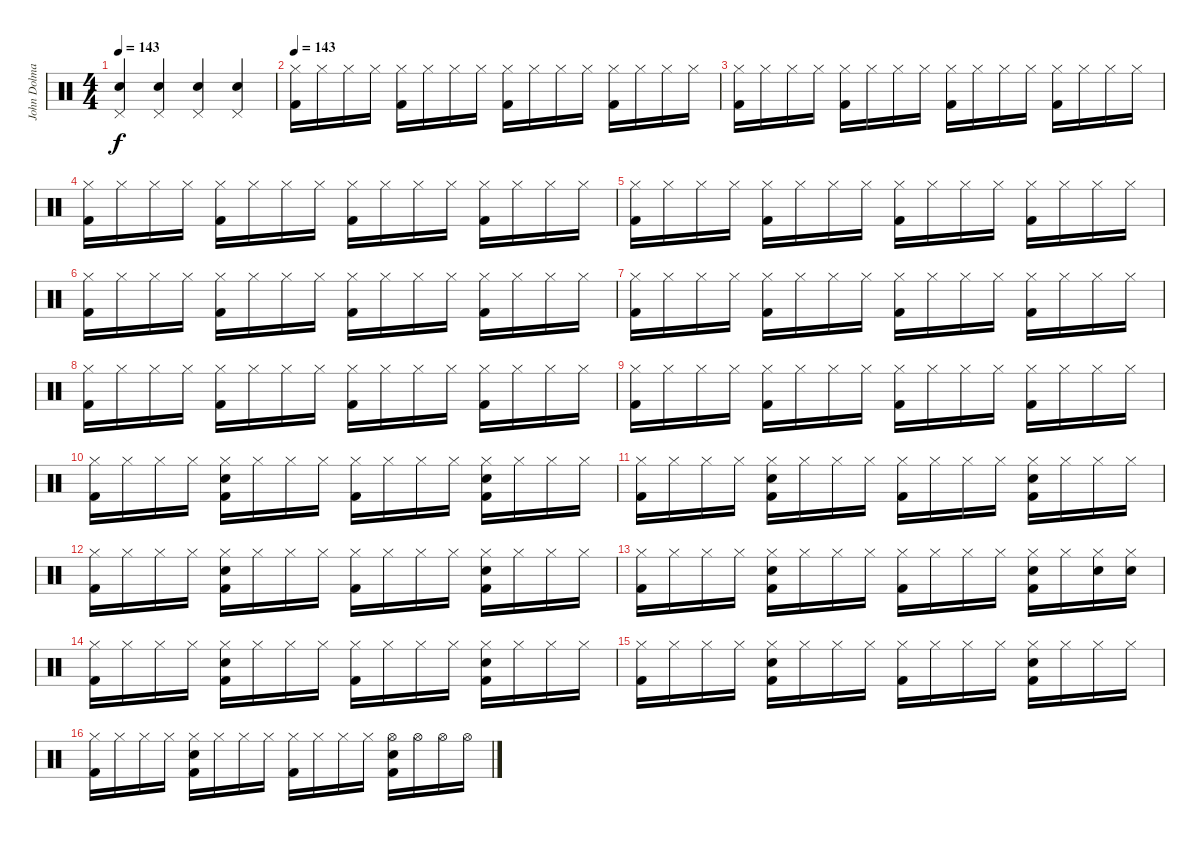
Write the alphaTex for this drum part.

\track ("John Dolmayan (Drums)" "John Dolma") {instrument percussion}
\staff {score}
\articulation defaults
\ts (4 4)
\tempo 143
\clef neutral
\ks c
("Pedal Hi-Hat (hit)" "Electric Snare (hit)").4{dy f} ("Pedal Hi-Hat (hit)" "Electric Snare (hit)").4 ("Pedal Hi-Hat (hit)" "Electric Snare (hit)").4 ("Pedal Hi-Hat (hit)" "Electric Snare (hit)").4 |
\tempo 143
("Hi-Hat (closed)" "Kick (hit) 2").16 "Hi-Hat (closed)".16 "Hi-Hat (closed)".16 "Hi-Hat (closed)".16 ("Hi-Hat (closed)" "Kick (hit) 2").16 "Hi-Hat (closed)".16 "Hi-Hat (closed)".16 "Hi-Hat (closed)".16 ("Hi-Hat (closed)" "Kick (hit) 2").16 "Hi-Hat (closed)".16 "Hi-Hat (closed)".16 "Hi-Hat (closed)".16 ("Hi-Hat (closed)" "Kick (hit) 2").16 "Hi-Hat (closed)".16 "Hi-Hat (closed)".16 "Hi-Hat (closed)".16 |
("Hi-Hat (closed)" "Kick (hit) 2").16 "Hi-Hat (closed)".16 "Hi-Hat (closed)".16 "Hi-Hat (closed)".16 ("Hi-Hat (closed)" "Kick (hit) 2").16 "Hi-Hat (closed)".16 "Hi-Hat (closed)".16 "Hi-Hat (closed)".16 ("Hi-Hat (closed)" "Kick (hit) 2").16 "Hi-Hat (closed)".16 "Hi-Hat (closed)".16 "Hi-Hat (closed)".16 ("Hi-Hat (closed)" "Kick (hit) 2").16 "Hi-Hat (closed)".16 "Hi-Hat (closed)".16 "Hi-Hat (closed)".16 |
("Hi-Hat (closed)" "Kick (hit) 2").16 "Hi-Hat (closed)".16 "Hi-Hat (closed)".16 "Hi-Hat (closed)".16 ("Hi-Hat (closed)" "Kick (hit) 2").16 "Hi-Hat (closed)".16 "Hi-Hat (closed)".16 "Hi-Hat (closed)".16 ("Hi-Hat (closed)" "Kick (hit) 2").16 "Hi-Hat (closed)".16 "Hi-Hat (closed)".16 "Hi-Hat (closed)".16 ("Hi-Hat (closed)" "Kick (hit) 2").16 "Hi-Hat (closed)".16 "Hi-Hat (closed)".16 "Hi-Hat (closed)".16 |
("Hi-Hat (closed)" "Kick (hit) 2").16 "Hi-Hat (closed)".16 "Hi-Hat (closed)".16 "Hi-Hat (closed)".16 ("Hi-Hat (closed)" "Kick (hit) 2").16 "Hi-Hat (closed)".16 "Hi-Hat (closed)".16 "Hi-Hat (closed)".16 ("Hi-Hat (closed)" "Kick (hit) 2").16 "Hi-Hat (closed)".16 "Hi-Hat (closed)".16 "Hi-Hat (closed)".16 ("Hi-Hat (closed)" "Kick (hit) 2").16 "Hi-Hat (closed)".16 "Hi-Hat (closed)".16 "Hi-Hat (closed)".16 |
("Hi-Hat (closed)" "Kick (hit) 2").16 "Hi-Hat (closed)".16 "Hi-Hat (closed)".16 "Hi-Hat (closed)".16 ("Hi-Hat (closed)" "Kick (hit) 2").16 "Hi-Hat (closed)".16 "Hi-Hat (closed)".16 "Hi-Hat (closed)".16 ("Hi-Hat (closed)" "Kick (hit) 2").16 "Hi-Hat (closed)".16 "Hi-Hat (closed)".16 "Hi-Hat (closed)".16 ("Hi-Hat (closed)" "Kick (hit) 2").16 "Hi-Hat (closed)".16 "Hi-Hat (closed)".16 "Hi-Hat (closed)".16 |
("Hi-Hat (closed)" "Kick (hit) 2").16 "Hi-Hat (closed)".16 "Hi-Hat (closed)".16 "Hi-Hat (closed)".16 ("Hi-Hat (closed)" "Kick (hit) 2").16 "Hi-Hat (closed)".16 "Hi-Hat (closed)".16 "Hi-Hat (closed)".16 ("Hi-Hat (closed)" "Kick (hit) 2").16 "Hi-Hat (closed)".16 "Hi-Hat (closed)".16 "Hi-Hat (closed)".16 ("Hi-Hat (closed)" "Kick (hit) 2").16 "Hi-Hat (closed)".16 "Hi-Hat (closed)".16 "Hi-Hat (closed)".16 |
("Hi-Hat (closed)" "Kick (hit) 2").16 "Hi-Hat (closed)".16 "Hi-Hat (closed)".16 "Hi-Hat (closed)".16 ("Hi-Hat (closed)" "Kick (hit) 2").16 "Hi-Hat (closed)".16 "Hi-Hat (closed)".16 "Hi-Hat (closed)".16 ("Hi-Hat (closed)" "Kick (hit) 2").16 "Hi-Hat (closed)".16 "Hi-Hat (closed)".16 "Hi-Hat (closed)".16 ("Hi-Hat (closed)" "Kick (hit) 2").16 "Hi-Hat (closed)".16 "Hi-Hat (closed)".16 "Hi-Hat (closed)".16 |
("Hi-Hat (closed)" "Kick (hit) 2").16 "Hi-Hat (closed)".16 "Hi-Hat (closed)".16 "Hi-Hat (closed)".16 ("Hi-Hat (closed)" "Kick (hit) 2").16 "Hi-Hat (closed)".16 "Hi-Hat (closed)".16 "Hi-Hat (closed)".16 ("Hi-Hat (closed)" "Kick (hit) 2").16 "Hi-Hat (closed)".16 "Hi-Hat (closed)".16 "Hi-Hat (closed)".16 ("Hi-Hat (closed)" "Kick (hit) 2").16 "Hi-Hat (closed)".16 "Hi-Hat (closed)".16 "Hi-Hat (closed)".16 |
("Hi-Hat (closed)" "Kick (hit) 2").16 "Hi-Hat (closed)".16 "Hi-Hat (closed)".16 "Hi-Hat (closed)".16 ("Hi-Hat (closed)" "Electric Snare (hit)" "Kick (hit) 2").16 "Hi-Hat (closed)".16 "Hi-Hat (closed)".16 "Hi-Hat (closed)".16 ("Hi-Hat (closed)" "Kick (hit) 2").16 "Hi-Hat (closed)".16 "Hi-Hat (closed)".16 "Hi-Hat (closed)".16 ("Hi-Hat (closed)" "Electric Snare (hit)" "Kick (hit) 2").16 "Hi-Hat (closed)".16 "Hi-Hat (closed)".16 "Hi-Hat (closed)".16 |
("Hi-Hat (closed)" "Kick (hit) 2").16 "Hi-Hat (closed)".16 "Hi-Hat (closed)".16 "Hi-Hat (closed)".16 ("Hi-Hat (closed)" "Electric Snare (hit)" "Kick (hit) 2").16 "Hi-Hat (closed)".16 "Hi-Hat (closed)".16 "Hi-Hat (closed)".16 ("Hi-Hat (closed)" "Kick (hit) 2").16 "Hi-Hat (closed)".16 "Hi-Hat (closed)".16 "Hi-Hat (closed)".16 ("Hi-Hat (closed)" "Electric Snare (hit)" "Kick (hit) 2").16 "Hi-Hat (closed)".16 "Hi-Hat (closed)".16 "Hi-Hat (closed)".16 |
("Hi-Hat (closed)" "Kick (hit) 2").16 "Hi-Hat (closed)".16 "Hi-Hat (closed)".16 "Hi-Hat (closed)".16 ("Hi-Hat (closed)" "Electric Snare (hit)" "Kick (hit) 2").16 "Hi-Hat (closed)".16 "Hi-Hat (closed)".16 "Hi-Hat (closed)".16 ("Hi-Hat (closed)" "Kick (hit) 2").16 "Hi-Hat (closed)".16 "Hi-Hat (closed)".16 "Hi-Hat (closed)".16 ("Hi-Hat (closed)" "Electric Snare (hit)" "Kick (hit) 2").16 "Hi-Hat (closed)".16 "Hi-Hat (closed)".16 "Hi-Hat (closed)".16 |
("Hi-Hat (closed)" "Kick (hit) 2").16 "Hi-Hat (closed)".16 "Hi-Hat (closed)".16 "Hi-Hat (closed)".16 ("Hi-Hat (closed)" "Electric Snare (hit)" "Kick (hit) 2").16 "Hi-Hat (closed)".16 "Hi-Hat (closed)".16 "Hi-Hat (closed)".16 ("Hi-Hat (closed)" "Kick (hit) 2").16 "Hi-Hat (closed)".16 "Hi-Hat (closed)".16 "Hi-Hat (closed)".16 ("Hi-Hat (closed)" "Electric Snare (hit)" "Kick (hit) 2").16 "Hi-Hat (closed)".16 ("Hi-Hat (closed)" "Electric Snare (hit)").16 ("Hi-Hat (closed)" "Electric Snare (hit)").16 |
("Hi-Hat (closed)" "Kick (hit) 2").16 "Hi-Hat (closed)".16 "Hi-Hat (closed)".16 "Hi-Hat (closed)".16 ("Hi-Hat (closed)" "Electric Snare (hit)" "Kick (hit) 2").16 "Hi-Hat (closed)".16 "Hi-Hat (closed)".16 "Hi-Hat (closed)".16 ("Hi-Hat (closed)" "Kick (hit) 2").16 "Hi-Hat (closed)".16 "Hi-Hat (closed)".16 "Hi-Hat (closed)".16 ("Hi-Hat (closed)" "Electric Snare (hit)" "Kick (hit) 2").16 "Hi-Hat (closed)".16 "Hi-Hat (closed)".16 "Hi-Hat (closed)".16 |
("Hi-Hat (closed)" "Kick (hit) 2").16 "Hi-Hat (closed)".16 "Hi-Hat (closed)".16 "Hi-Hat (closed)".16 ("Hi-Hat (closed)" "Electric Snare (hit)" "Kick (hit) 2").16 "Hi-Hat (closed)".16 "Hi-Hat (closed)".16 "Hi-Hat (closed)".16 ("Hi-Hat (closed)" "Kick (hit) 2").16 "Hi-Hat (closed)".16 "Hi-Hat (closed)".16 "Hi-Hat (closed)".16 ("Hi-Hat (closed)" "Electric Snare (hit)" "Kick (hit) 2").16 "Hi-Hat (closed)".16 "Hi-Hat (closed)".16 "Hi-Hat (closed)".16 |
("Hi-Hat (closed)" "Kick (hit) 2").16 "Hi-Hat (closed)".16 "Hi-Hat (closed)".16 "Hi-Hat (closed)".16 ("Hi-Hat (closed)" "Electric Snare (hit)" "Kick (hit) 2").16 "Hi-Hat (closed)".16 "Hi-Hat (closed)".16 "Hi-Hat (closed)".16 ("Hi-Hat (closed)" "Kick (hit) 2").16 "Hi-Hat (closed)".16 "Hi-Hat (closed)".16 "Hi-Hat (closed)".16 ("Hi-Hat (open)" "Electric Snare (hit)" "Kick (hit) 2").16 "Hi-Hat (open)".16 "Hi-Hat (open)".16 "Hi-Hat (open)".16
